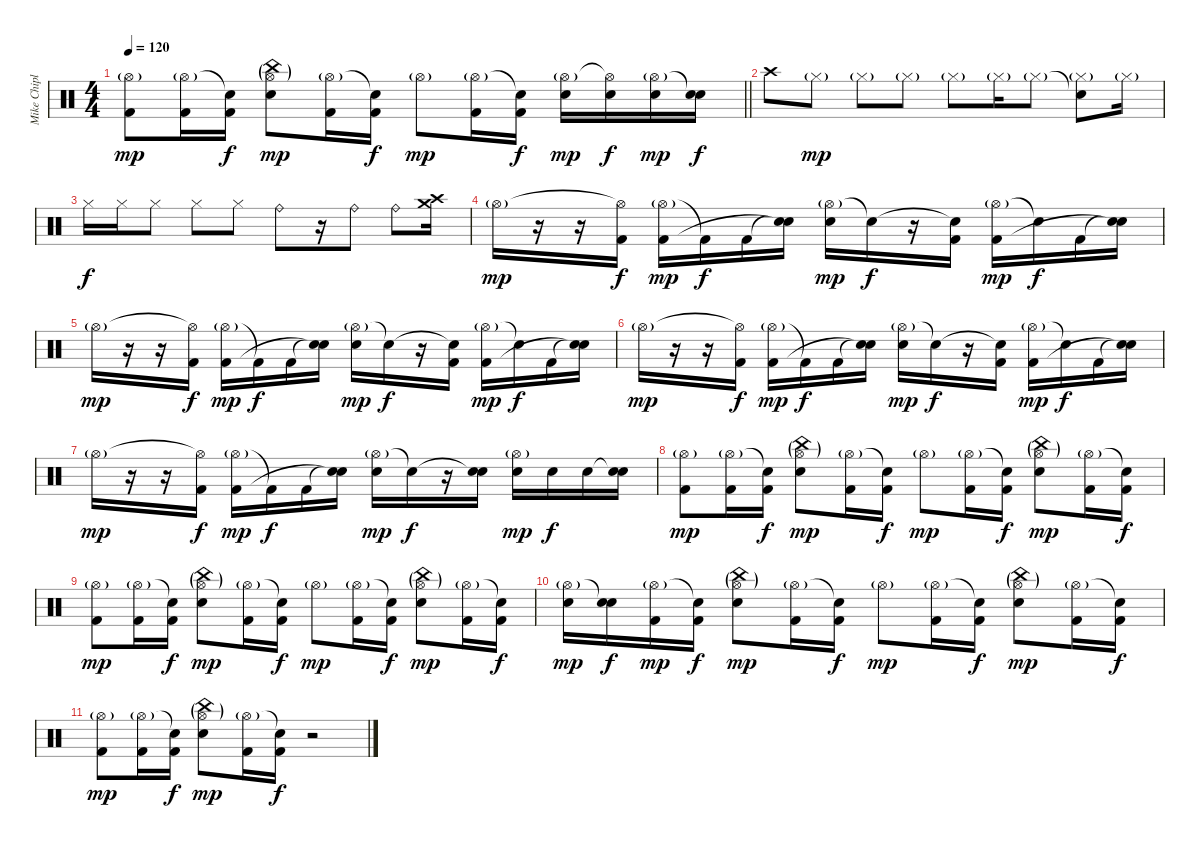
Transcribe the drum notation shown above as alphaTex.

\track ("Mike Chiplin" "Mike Chipl") {instrument percussion}
\staff {score}
\articulation defaults
\ts (4 4)
\tempo 120
\clef neutral
\barLineRight lightlight
\ks c
("Hi-Hat (open)"{g} "Kick (hit) 2").8{dy mp} ("Hi-Hat (open)"{g} "Kick (hit) 2").16 ("Snare (hit)"{t} "Kick (hit) 2").16{dy f} ("China (hit)"{g} "Hi-Hat (open)"{g} "Electric Snare (hit)").8{dy mp} ("Hi-Hat (open)"{g} "Kick (hit) 2").16 ("Snare (hit)"{t} "Kick (hit) 2").16{dy f} "Hi-Hat (open)"{g}.8{dy mp} ("Hi-Hat (open)"{g} "Kick (hit) 2").16 ("Snare (hit)"{t} "Kick (hit) 2").16{dy f} ("Hi-Hat (open)"{g} "Electric Snare (hit)").16{dy mp} ("Hi-Hat (open)"{t} "Electric Snare (hit)").16{dy f} ("Hi-Hat (open)"{g} "Electric Snare (hit)").16{dy mp} ("Snare (hit)"{t} "Electric Snare (hit)").16{dy f} |
"Crash high (hit)".8 "Hi-Hat (closed)"{g}.8{dy mp} "Hi-Hat (closed)"{g}.8 "Hi-Hat (closed)"{g}.8 "Hi-Hat (closed)"{g}.8 "Hi-Hat (closed)"{g}.16 "Hi-Hat (closed)"{g}.8 ("Snare (hit)"{t} "Hi-Hat (closed)"{g}).8 "Hi-Hat (closed)"{g}.16 |
"Hi-Hat (closed)".16{dy f} "Hi-Hat (closed)".16 "Hi-Hat (closed)".8 "Hi-Hat (closed)".8 "Hi-Hat (closed)".8 "Ride (bell)".8 r.16 "Ride (bell)".8 "Ride (bell)".8 ("Crash high (hit)" "Crash medium (hit)").16 |
"Hi-Hat (open)"{g}.16{dy mp} r.16 r.16 ("Hi-Hat (open)"{t} "Kick (hit) 2").16{dy f} ("Hi-Hat (open)"{g} "Kick (hit) 2").16{dy mp} "Kick (hit) 2"{t}.16{dy f} "Kick (hit) 2".16 ("Snare (hit)"{t} "Snare (hit)"{t}).16 ("Hi-Hat (open)"{g} "Electric Snare (hit)").16{dy mp} "Snare (hit)"{t}.16{dy f} r.16 ("Snare (hit)"{t} "Kick (hit) 2").16 ("Hi-Hat (open)"{g} "Kick (hit) 2").16{dy mp} "Snare (hit)"{t}.16{dy f} "Kick (hit) 2".16 ("Snare (hit)"{t} "Snare (hit)"{t}).16 |
"Hi-Hat (open)"{g}.16{dy mp} r.16 r.16 ("Hi-Hat (open)"{t} "Kick (hit) 2").16{dy f} ("Hi-Hat (open)"{g} "Kick (hit) 2").16{dy mp} "Kick (hit) 2"{t}.16{dy f} "Kick (hit) 2".16 ("Snare (hit)"{t} "Snare (hit)"{t}).16 ("Hi-Hat (open)"{g} "Electric Snare (hit)").16{dy mp} "Snare (hit)"{t}.16{dy f} r.16 ("Snare (hit)"{t} "Kick (hit) 2").16 ("Hi-Hat (open)"{g} "Kick (hit) 2").16{dy mp} "Snare (hit)"{t}.16{dy f} "Kick (hit) 2".16 ("Snare (hit)"{t} "Snare (hit)"{t}).16 |
"Hi-Hat (open)"{g}.16{dy mp} r.16 r.16 ("Hi-Hat (open)"{t} "Kick (hit) 2").16{dy f} ("Hi-Hat (open)"{g} "Kick (hit) 2").16{dy mp} "Kick (hit) 2"{t}.16{dy f} "Kick (hit) 2".16 ("Snare (hit)"{t} "Snare (hit)"{t}).16 ("Hi-Hat (open)"{g} "Electric Snare (hit)").16{dy mp} "Snare (hit)"{t}.16{dy f} r.16 ("Snare (hit)"{t} "Kick (hit) 2").16 ("Hi-Hat (open)"{g} "Kick (hit) 2").16{dy mp} "Snare (hit)"{t}.16{dy f} "Kick (hit) 2".16 ("Snare (hit)"{t} "Snare (hit)"{t}).16 |
"Hi-Hat (open)"{g}.16{dy mp} r.16 r.16 ("Hi-Hat (open)"{t} "Kick (hit) 2").16{dy f} ("Hi-Hat (open)"{g} "Kick (hit) 2").16{dy mp} "Kick (hit) 2"{t}.16{dy f} "Kick (hit) 2".16 ("Snare (hit)"{t} "Snare (hit)"{t}).16 ("Hi-Hat (open)"{g} "Electric Snare (hit)").16{dy mp} "Snare (hit)"{t}.16{dy f} r.16 ("Snare (hit)"{t} "Electric Snare (hit)").16 ("Hi-Hat (open)"{g} "Electric Snare (hit)").16{dy mp} "Electric Snare (hit)".16{dy f} "Electric Snare (hit)".16 ("Snare (hit)"{t} "Electric Snare (hit)").16 |
("Hi-Hat (open)"{g} "Kick (hit) 2").8{dy mp} ("Hi-Hat (open)"{g} "Kick (hit) 2").16 ("Snare (hit)"{t} "Kick (hit) 2").16{dy f} ("China (hit)"{g} "Hi-Hat (open)"{g} "Electric Snare (hit)").8{dy mp} ("Hi-Hat (open)"{g} "Kick (hit) 2").16 ("Snare (hit)"{t} "Kick (hit) 2").16{dy f} "Hi-Hat (open)"{g}.8{dy mp} ("Hi-Hat (open)"{g} "Kick (hit) 2").16 ("Snare (hit)"{t} "Kick (hit) 2").16{dy f} ("China (hit)"{g} "Hi-Hat (open)"{g} "Electric Snare (hit)").8{dy mp} ("Hi-Hat (open)"{g} "Kick (hit) 2").16 ("Snare (hit)"{t} "Kick (hit) 2").16{dy f} |
("Hi-Hat (open)"{g} "Kick (hit) 2").8{dy mp} ("Hi-Hat (open)"{g} "Kick (hit) 2").16 ("Snare (hit)"{t} "Kick (hit) 2").16{dy f} ("China (hit)"{g} "Hi-Hat (open)"{g} "Electric Snare (hit)").8{dy mp} ("Hi-Hat (open)"{g} "Kick (hit) 2").16 ("Snare (hit)"{t} "Kick (hit) 2").16{dy f} "Hi-Hat (open)"{g}.8{dy mp} ("Hi-Hat (open)"{g} "Kick (hit) 2").16 ("Snare (hit)"{t} "Kick (hit) 2").16{dy f} ("China (hit)"{g} "Hi-Hat (open)"{g} "Electric Snare (hit)").8{dy mp} ("Hi-Hat (open)"{g} "Kick (hit) 2").16 ("Snare (hit)"{t} "Kick (hit) 2").16{dy f} |
("Hi-Hat (open)"{g} "Electric Snare (hit)").16{dy mp} ("Snare (hit)"{t} "Electric Snare (hit)").16{dy f} ("Hi-Hat (open)"{g} "Kick (hit) 2").16{dy mp} ("Snare (hit)"{t} "Kick (hit) 2").16{dy f} ("China (hit)"{g} "Hi-Hat (open)"{g} "Electric Snare (hit)").8{dy mp} ("Hi-Hat (open)"{g} "Kick (hit) 2").16 ("Snare (hit)"{t} "Kick (hit) 2").16{dy f} "Hi-Hat (open)"{g}.8{dy mp} ("Hi-Hat (open)"{g} "Kick (hit) 2").16 ("Snare (hit)"{t} "Kick (hit) 2").16{dy f} ("China (hit)"{g} "Hi-Hat (open)"{g} "Electric Snare (hit)").8{dy mp} ("Hi-Hat (open)"{g} "Kick (hit) 2").16 ("Snare (hit)"{t} "Kick (hit) 2").16{dy f} |
("Hi-Hat (open)"{g} "Kick (hit) 2").8{dy mp} ("Hi-Hat (open)"{g} "Kick (hit) 2").16 ("Snare (hit)"{t} "Kick (hit) 2").16{dy f} ("China (hit)"{g} "Hi-Hat (open)"{g} "Electric Snare (hit)").8{dy mp} ("Hi-Hat (open)"{g} "Kick (hit) 2").16 ("Snare (hit)"{t} "Kick (hit) 2").16{dy f} r.2
